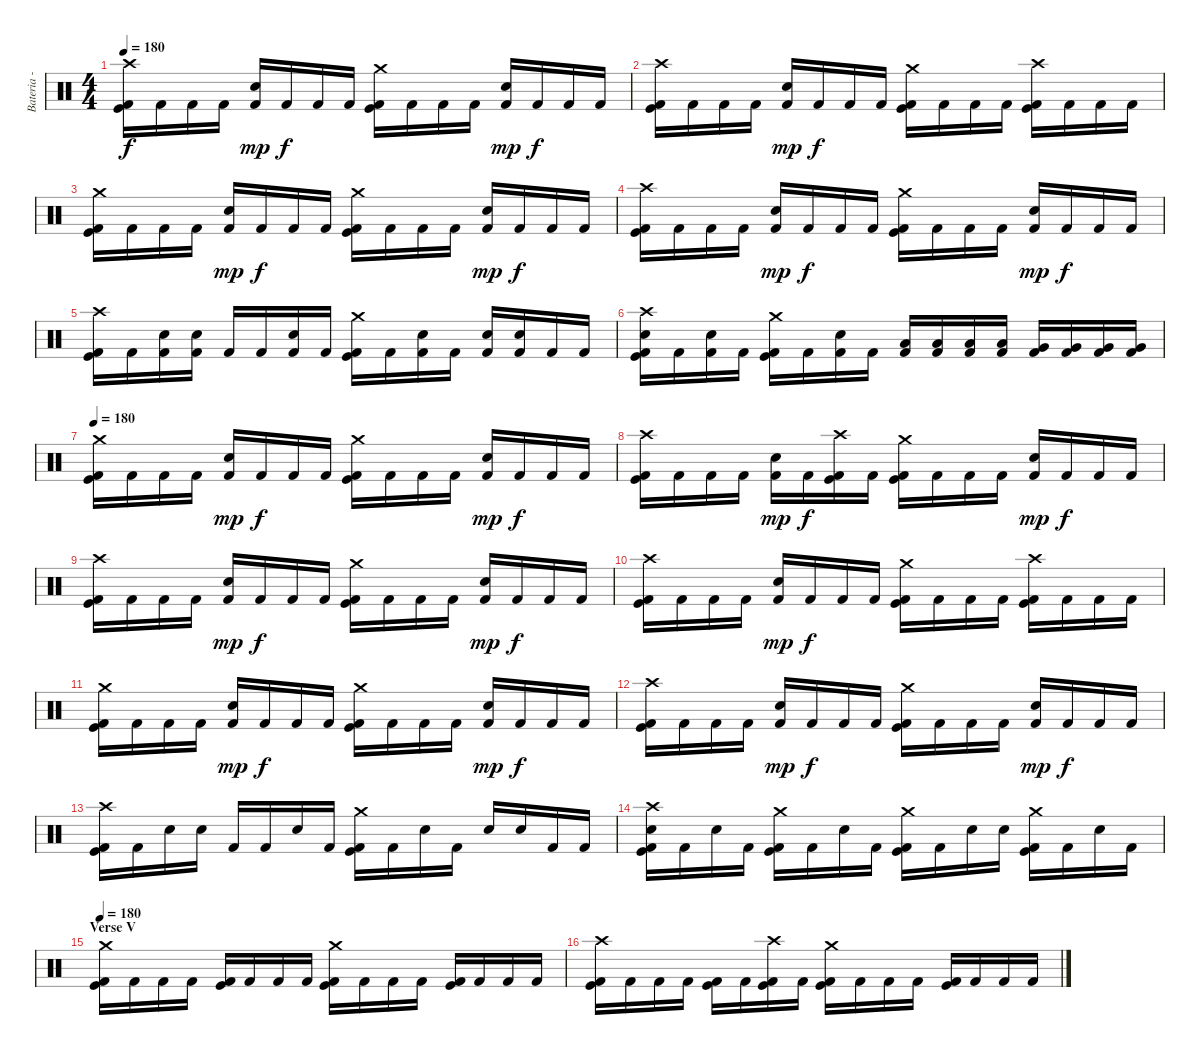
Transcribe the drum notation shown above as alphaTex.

\track ("Bateria - Drums" "Bateria - ") {instrument percussion}
\staff {score}
\articulation defaults
\ts (4 4)
\tempo 180
\clef neutral
\ks c
("Crash high (hit)" "Kick (hit)" "Kick (hit) 2").16{dy f} "Kick (hit) 2".16 "Kick (hit) 2".16 "Kick (hit) 2".16 ("Snare (hit) 2" "Kick (hit) 2").16{dy mp} "Kick (hit) 2".16{dy f} "Kick (hit) 2".16 "Kick (hit) 2".16 ("Crash medium (hit)" "Kick (hit)" "Kick (hit) 2").16 "Kick (hit) 2".16 "Kick (hit) 2".16 "Kick (hit) 2".16 ("Snare (hit) 2" "Kick (hit) 2").16{dy mp} "Kick (hit) 2".16{dy f} "Kick (hit) 2".16 "Kick (hit) 2".16 |
("Crash high (hit)" "Kick (hit)" "Kick (hit) 2").16 "Kick (hit) 2".16 "Kick (hit) 2".16 "Kick (hit) 2".16 ("Snare (hit) 2" "Kick (hit) 2").16{dy mp} "Kick (hit) 2".16{dy f} "Kick (hit) 2".16 "Kick (hit) 2".16 ("Crash medium (hit)" "Kick (hit)" "Kick (hit) 2").16 "Kick (hit) 2".16 "Kick (hit) 2".16 "Kick (hit) 2".16 ("Crash high (hit)" "Kick (hit)" "Kick (hit) 2").16 "Kick (hit) 2".16 "Kick (hit) 2".16 "Kick (hit) 2".16 |
("Crash medium (hit)" "Kick (hit)" "Kick (hit) 2").16 "Kick (hit) 2".16 "Kick (hit) 2".16 "Kick (hit) 2".16 ("Snare (hit) 2" "Kick (hit) 2").16{dy mp} "Kick (hit) 2".16{dy f} "Kick (hit) 2".16 "Kick (hit) 2".16 ("Crash medium (hit)" "Kick (hit)" "Kick (hit) 2").16 "Kick (hit) 2".16 "Kick (hit) 2".16 "Kick (hit) 2".16 ("Snare (hit) 2" "Kick (hit) 2").16{dy mp} "Kick (hit) 2".16{dy f} "Kick (hit) 2".16 "Kick (hit) 2".16 |
("Crash high (hit)" "Kick (hit)" "Kick (hit) 2").16 "Kick (hit) 2".16 "Kick (hit) 2".16 "Kick (hit) 2".16 ("Snare (hit) 2" "Kick (hit) 2").16{dy mp} "Kick (hit) 2".16{dy f} "Kick (hit) 2".16 "Kick (hit) 2".16 ("Crash medium (hit)" "Kick (hit)" "Kick (hit) 2").16 "Kick (hit) 2".16 "Kick (hit) 2".16 "Kick (hit) 2".16 ("Snare (hit) 2" "Kick (hit) 2").16{dy mp} "Kick (hit) 2".16{dy f} "Kick (hit) 2".16 "Kick (hit) 2".16 |
("Crash high (hit)" "Kick (hit)" "Kick (hit) 2").16 "Kick (hit) 2".16 ("Electric Snare (hit)" "Kick (hit) 2").16 ("Electric Snare (hit)" "Kick (hit) 2").16 "Kick (hit) 2".16 "Kick (hit) 2".16 ("Snare (hit) 2" "Kick (hit) 2").16 "Kick (hit) 2".16 ("Crash medium (hit)" "Kick (hit)" "Kick (hit) 2").16 "Kick (hit) 2".16 ("Snare (hit) 2" "Kick (hit) 2").16 "Kick (hit) 2".16 ("Snare (hit) 2" "Kick (hit) 2").16 ("Snare (hit) 2" "Kick (hit) 2").16 "Kick (hit) 2".16 "Kick (hit) 2".16 |
("Crash high (hit)" "Snare (hit) 2" "Kick (hit)" "Kick (hit) 2").16 "Kick (hit) 2".16 ("Snare (hit) 2" "Kick (hit) 2").16 "Kick (hit) 2".16 ("Crash medium (hit)" "Kick (hit)" "Kick (hit) 2").16 "Kick (hit) 2".16 ("Snare (hit) 2" "Kick (hit) 2").16 "Kick (hit) 2".16 ("Low Tom (hit)" "Kick (hit) 2").16 ("Low Tom (hit)" "Kick (hit) 2").16 ("Low Tom (hit)" "Kick (hit) 2").16 ("Low Tom (hit)" "Kick (hit) 2").16 ("Very Low Tom (hit)" "Kick (hit) 2").16 ("Very Low Tom (hit)" "Kick (hit) 2").16 ("Very Low Tom (hit)" "Kick (hit) 2").16 ("Very Low Tom (hit)" "Kick (hit) 2").16 |
\tempo 180
("Crash medium (hit)" "Kick (hit)" "Kick (hit) 2").16 "Kick (hit) 2".16 "Kick (hit) 2".16 "Kick (hit) 2".16 ("Snare (hit) 2" "Kick (hit) 2").16{dy mp} "Kick (hit) 2".16{dy f} "Kick (hit) 2".16 "Kick (hit) 2".16 ("Crash medium (hit)" "Kick (hit)" "Kick (hit) 2").16 "Kick (hit) 2".16 "Kick (hit) 2".16 "Kick (hit) 2".16 ("Snare (hit) 2" "Kick (hit) 2").16{dy mp} "Kick (hit) 2".16{dy f} "Kick (hit) 2".16 "Kick (hit) 2".16 |
("Crash high (hit)" "Kick (hit)" "Kick (hit) 2").16 "Kick (hit) 2".16 "Kick (hit) 2".16 "Kick (hit) 2".16 ("Snare (hit) 2" "Kick (hit) 2").16{dy mp} "Kick (hit) 2".16{dy f} ("Crash high (hit)" "Kick (hit)" "Kick (hit) 2").16 "Kick (hit) 2".16 ("Crash medium (hit)" "Kick (hit)" "Kick (hit) 2").16 "Kick (hit) 2".16 "Kick (hit) 2".16 "Kick (hit) 2".16 ("Snare (hit) 2" "Kick (hit) 2").16{dy mp} "Kick (hit) 2".16{dy f} "Kick (hit) 2".16 "Kick (hit) 2".16 |
("Crash high (hit)" "Kick (hit)" "Kick (hit) 2").16 "Kick (hit) 2".16 "Kick (hit) 2".16 "Kick (hit) 2".16 ("Snare (hit) 2" "Kick (hit) 2").16{dy mp} "Kick (hit) 2".16{dy f} "Kick (hit) 2".16 "Kick (hit) 2".16 ("Crash medium (hit)" "Kick (hit)" "Kick (hit) 2").16 "Kick (hit) 2".16 "Kick (hit) 2".16 "Kick (hit) 2".16 ("Snare (hit) 2" "Kick (hit) 2").16{dy mp} "Kick (hit) 2".16{dy f} "Kick (hit) 2".16 "Kick (hit) 2".16 |
("Crash high (hit)" "Kick (hit)" "Kick (hit) 2").16 "Kick (hit) 2".16 "Kick (hit) 2".16 "Kick (hit) 2".16 ("Snare (hit) 2" "Kick (hit) 2").16{dy mp} "Kick (hit) 2".16{dy f} "Kick (hit) 2".16 "Kick (hit) 2".16 ("Crash medium (hit)" "Kick (hit)" "Kick (hit) 2").16 "Kick (hit) 2".16 "Kick (hit) 2".16 "Kick (hit) 2".16 ("Crash high (hit)" "Kick (hit)" "Kick (hit) 2").16 "Kick (hit) 2".16 "Kick (hit) 2".16 "Kick (hit) 2".16 |
("Crash medium (hit)" "Kick (hit)" "Kick (hit) 2").16 "Kick (hit) 2".16 "Kick (hit) 2".16 "Kick (hit) 2".16 ("Snare (hit) 2" "Kick (hit) 2").16{dy mp} "Kick (hit) 2".16{dy f} "Kick (hit) 2".16 "Kick (hit) 2".16 ("Crash medium (hit)" "Kick (hit)" "Kick (hit) 2").16 "Kick (hit) 2".16 "Kick (hit) 2".16 "Kick (hit) 2".16 ("Snare (hit) 2" "Kick (hit) 2").16{dy mp} "Kick (hit) 2".16{dy f} "Kick (hit) 2".16 "Kick (hit) 2".16 |
("Crash high (hit)" "Kick (hit)" "Kick (hit) 2").16 "Kick (hit) 2".16 "Kick (hit) 2".16 "Kick (hit) 2".16 ("Snare (hit) 2" "Kick (hit) 2").16{dy mp} "Kick (hit) 2".16{dy f} "Kick (hit) 2".16 "Kick (hit) 2".16 ("Crash medium (hit)" "Kick (hit)" "Kick (hit) 2").16 "Kick (hit) 2".16 "Kick (hit) 2".16 "Kick (hit) 2".16 ("Snare (hit) 2" "Kick (hit) 2").16{dy mp} "Kick (hit) 2".16{dy f} "Kick (hit) 2".16 "Kick (hit) 2".16 |
("Crash high (hit)" "Kick (hit)" "Kick (hit) 2").16 "Kick (hit) 2".16 "Electric Snare (hit)".16 "Electric Snare (hit)".16 "Kick (hit) 2".16 "Kick (hit) 2".16 "Snare (hit) 2".16 "Kick (hit) 2".16 ("Crash medium (hit)" "Kick (hit)" "Kick (hit) 2").16 "Kick (hit) 2".16 "Snare (hit) 2".16 "Kick (hit) 2".16 "Snare (hit) 2".16 "Snare (hit) 2".16 "Kick (hit) 2".16 "Kick (hit) 2".16 |
("Crash high (hit)" "Snare (hit) 2" "Kick (hit)" "Kick (hit) 2").16 "Kick (hit) 2".16 "Snare (hit) 2".16 "Kick (hit) 2".16 ("Crash medium (hit)" "Kick (hit)" "Kick (hit) 2").16 "Kick (hit) 2".16 "Snare (hit) 2".16 "Kick (hit) 2".16 ("Crash medium (hit)" "Kick (hit)" "Kick (hit) 2").16 "Kick (hit) 2".16 "Snare (hit) 2".16 "Snare (hit) 2".16 ("Crash medium (hit)" "Kick (hit)" "Kick (hit) 2").16 "Kick (hit) 2".16 "Snare (hit) 2".16 "Kick (hit) 2".16 |
\section ("" "Verse V")
\tempo 180
("Crash medium (hit)" "Kick (hit)" "Kick (hit) 2").16 "Kick (hit) 2".16 "Kick (hit) 2".16 "Kick (hit) 2".16 ("Kick (hit)" "Kick (hit) 2").16 "Kick (hit) 2".16 "Kick (hit) 2".16 "Kick (hit) 2".16 ("Crash medium (hit)" "Kick (hit)" "Kick (hit) 2").16 "Kick (hit) 2".16 "Kick (hit) 2".16 "Kick (hit) 2".16 ("Kick (hit)" "Kick (hit) 2").16 "Kick (hit) 2".16 "Kick (hit) 2".16 "Kick (hit) 2".16 |
("Crash high (hit)" "Kick (hit)" "Kick (hit) 2").16 "Kick (hit) 2".16 "Kick (hit) 2".16 "Kick (hit) 2".16 ("Kick (hit)" "Kick (hit) 2").16 "Kick (hit) 2".16 ("Crash high (hit)" "Kick (hit)" "Kick (hit) 2").16 "Kick (hit) 2".16 ("Crash medium (hit)" "Kick (hit)" "Kick (hit) 2").16 "Kick (hit) 2".16 "Kick (hit) 2".16 "Kick (hit) 2".16 ("Kick (hit)" "Kick (hit) 2").16 "Kick (hit) 2".16 "Kick (hit) 2".16 "Kick (hit) 2".16
